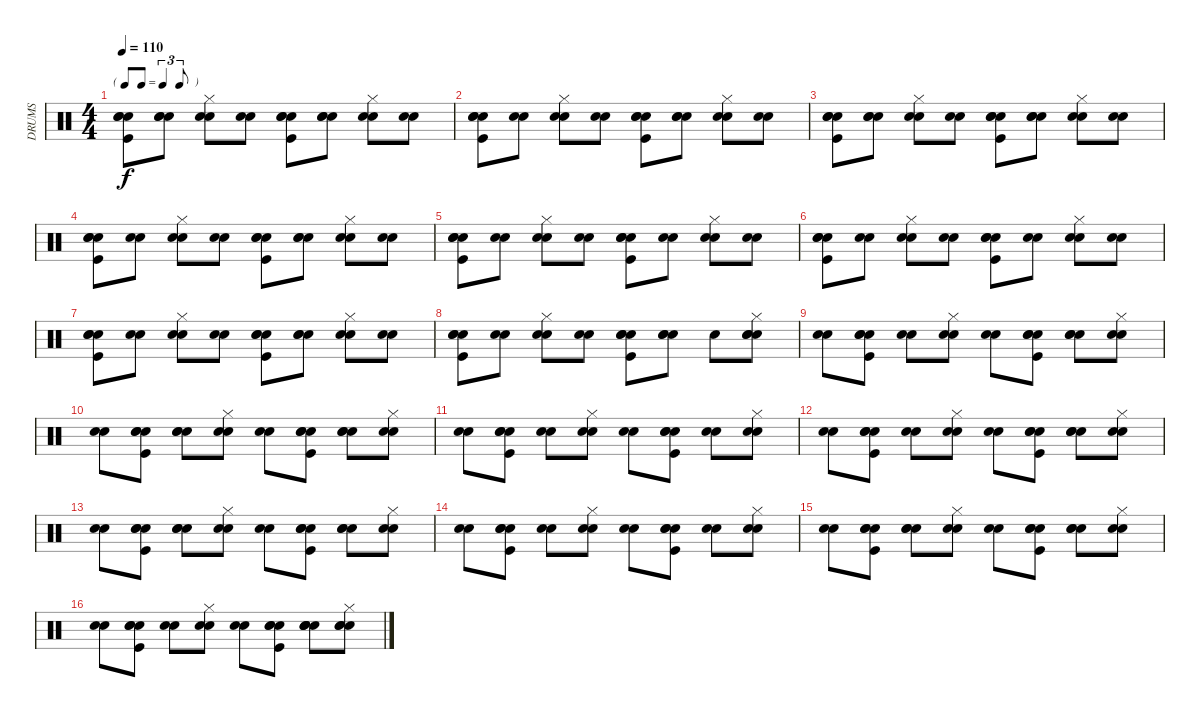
\track ("DRUMS" "DRUMS") {instrument percussion}
\staff {score}
\articulation defaults
\ts (4 4)
\tf triplet8th
\tempo 110
\clef neutral
\ks c
("Snare (hit)" "Kick (hit)" "Snare (hit) 2" "Electric Snare (hit)").8{dy f} ("Snare (hit)" "Snare (hit) 2" "Electric Snare (hit)").8 ("Snare (hit)" "Snare (hit) 2" "Hi-Hat (closed)").8 ("Snare (hit)" "Snare (hit) 2").8 ("Snare (hit)" "Kick (hit)" "Snare (hit) 2" "Electric Snare (hit)").8 ("Snare (hit)" "Snare (hit) 2" "Electric Snare (hit)").8 ("Snare (hit)" "Snare (hit) 2" "Hi-Hat (closed)").8 ("Snare (hit)" "Snare (hit) 2").8 |
("Snare (hit)" "Kick (hit)" "Snare (hit) 2" "Electric Snare (hit)").8 ("Snare (hit)" "Electric Snare (hit)").8 ("Snare (hit)" "Snare (hit) 2" "Hi-Hat (closed)").8 ("Snare (hit)" "Snare (hit) 2").8 ("Snare (hit)" "Kick (hit)" "Snare (hit) 2" "Electric Snare (hit)").8 ("Snare (hit)" "Snare (hit) 2" "Electric Snare (hit)").8 ("Snare (hit)" "Snare (hit) 2" "Hi-Hat (closed)").8 ("Snare (hit)" "Snare (hit) 2").8 |
("Snare (hit)" "Kick (hit)" "Snare (hit) 2" "Electric Snare (hit)").8 ("Snare (hit)" "Snare (hit) 2" "Electric Snare (hit)").8 ("Snare (hit)" "Snare (hit) 2" "Hi-Hat (closed)").8 ("Snare (hit)" "Snare (hit) 2").8 ("Snare (hit)" "Kick (hit)" "Snare (hit) 2" "Electric Snare (hit)").8 ("Snare (hit)" "Snare (hit) 2" "Electric Snare (hit)").8 ("Snare (hit)" "Snare (hit) 2" "Hi-Hat (closed)").8 ("Snare (hit)" "Snare (hit) 2").8 |
("Snare (hit)" "Kick (hit)" "Snare (hit) 2" "Electric Snare (hit)").8 ("Snare (hit)" "Electric Snare (hit)").8 ("Snare (hit)" "Snare (hit) 2" "Hi-Hat (closed)").8 ("Snare (hit)" "Snare (hit) 2").8 ("Snare (hit)" "Kick (hit)" "Snare (hit) 2" "Electric Snare (hit)").8 ("Snare (hit)" "Snare (hit) 2" "Electric Snare (hit)").8 ("Snare (hit)" "Snare (hit) 2" "Hi-Hat (closed)").8 ("Snare (hit)" "Snare (hit) 2").8 |
("Snare (hit)" "Kick (hit)" "Snare (hit) 2" "Electric Snare (hit)").8 ("Snare (hit)" "Electric Snare (hit)").8 ("Snare (hit)" "Snare (hit) 2" "Hi-Hat (closed)").8 ("Snare (hit)" "Snare (hit) 2").8 ("Snare (hit)" "Kick (hit)" "Snare (hit) 2" "Electric Snare (hit)").8 ("Snare (hit)" "Electric Snare (hit)").8 ("Snare (hit)" "Snare (hit) 2" "Hi-Hat (closed)").8 ("Snare (hit)" "Snare (hit) 2").8 |
("Snare (hit)" "Kick (hit)" "Snare (hit) 2" "Electric Snare (hit)").8 ("Snare (hit)" "Electric Snare (hit)").8 ("Snare (hit)" "Snare (hit) 2" "Hi-Hat (closed)").8 ("Snare (hit)" "Snare (hit) 2").8 ("Snare (hit)" "Kick (hit)" "Snare (hit) 2" "Electric Snare (hit)").8 ("Snare (hit)" "Electric Snare (hit)").8 ("Snare (hit)" "Snare (hit) 2" "Hi-Hat (closed)").8 ("Snare (hit)" "Snare (hit) 2").8 |
("Snare (hit)" "Kick (hit)" "Snare (hit) 2" "Electric Snare (hit)").8 ("Snare (hit)" "Electric Snare (hit)").8 ("Snare (hit)" "Snare (hit) 2" "Hi-Hat (closed)").8 ("Snare (hit)" "Snare (hit) 2").8 ("Snare (hit)" "Kick (hit)" "Snare (hit) 2" "Electric Snare (hit)").8 ("Snare (hit)" "Snare (hit) 2" "Electric Snare (hit)").8 ("Snare (hit)" "Snare (hit) 2" "Hi-Hat (closed)").8 ("Snare (hit)" "Snare (hit) 2").8 |
("Snare (hit)" "Kick (hit)" "Snare (hit) 2" "Electric Snare (hit)").8 ("Snare (hit)" "Electric Snare (hit)").8 ("Snare (hit)" "Snare (hit) 2" "Hi-Hat (closed)").8 ("Snare (hit)" "Snare (hit) 2").8 ("Snare (hit)" "Kick (hit)" "Snare (hit) 2" "Electric Snare (hit)").8 ("Snare (hit)" "Electric Snare (hit)" "Hand Clap (hit)").8 "Hand Clap (hit)".8 ("Snare (hit)" "Snare (hit) 2" "Hi-Hat (closed)" "Hand Clap (hit)").8 |
("Snare (hit)" "Snare (hit) 2").8 ("Snare (hit)" "Kick (hit)" "Snare (hit) 2" "Electric Snare (hit)").8 ("Snare (hit)" "Electric Snare (hit)").8 ("Snare (hit)" "Snare (hit) 2" "Hi-Hat (closed)").8 ("Snare (hit)" "Snare (hit) 2").8 ("Snare (hit)" "Kick (hit)" "Snare (hit) 2" "Electric Snare (hit)").8 ("Snare (hit)" "Snare (hit) 2" "Electric Snare (hit)").8 ("Snare (hit)" "Snare (hit) 2" "Hi-Hat (closed)").8 |
("Snare (hit)" "Snare (hit) 2").8 ("Snare (hit)" "Kick (hit)" "Snare (hit) 2" "Electric Snare (hit)").8 ("Snare (hit)" "Snare (hit) 2" "Electric Snare (hit)").8 ("Snare (hit)" "Snare (hit) 2" "Hi-Hat (closed)").8 ("Snare (hit)" "Snare (hit) 2").8 ("Snare (hit)" "Kick (hit)" "Snare (hit) 2" "Electric Snare (hit)").8 ("Snare (hit)" "Snare (hit) 2" "Electric Snare (hit)").8 ("Snare (hit)" "Snare (hit) 2" "Hi-Hat (closed)").8 |
("Snare (hit)" "Snare (hit) 2").8 ("Snare (hit)" "Kick (hit)" "Snare (hit) 2" "Electric Snare (hit)").8 ("Snare (hit)" "Electric Snare (hit)").8 ("Snare (hit)" "Snare (hit) 2" "Hi-Hat (closed)").8 ("Snare (hit)" "Snare (hit) 2").8 ("Snare (hit)" "Kick (hit)" "Snare (hit) 2" "Electric Snare (hit)").8 ("Snare (hit)" "Electric Snare (hit)").8 ("Snare (hit)" "Snare (hit) 2" "Hi-Hat (closed)").8 |
("Snare (hit)" "Snare (hit) 2").8 ("Snare (hit)" "Kick (hit)" "Snare (hit) 2" "Electric Snare (hit)").8 ("Snare (hit)" "Electric Snare (hit)").8 ("Snare (hit)" "Snare (hit) 2" "Hi-Hat (closed)").8 ("Snare (hit)" "Snare (hit) 2").8 ("Snare (hit)" "Kick (hit)" "Snare (hit) 2" "Electric Snare (hit)").8 ("Snare (hit)" "Snare (hit) 2" "Electric Snare (hit)").8 ("Snare (hit)" "Snare (hit) 2" "Hi-Hat (closed)").8 |
("Snare (hit)" "Snare (hit) 2").8 ("Snare (hit)" "Kick (hit)" "Snare (hit) 2" "Electric Snare (hit)").8 ("Snare (hit)" "Snare (hit) 2" "Electric Snare (hit)").8 ("Snare (hit)" "Snare (hit) 2" "Hi-Hat (closed)").8 ("Snare (hit)" "Snare (hit) 2").8 ("Snare (hit)" "Kick (hit)" "Snare (hit) 2" "Electric Snare (hit)").8 ("Snare (hit)" "Snare (hit) 2" "Electric Snare (hit)").8 ("Snare (hit)" "Snare (hit) 2" "Hi-Hat (closed)").8 |
("Snare (hit)" "Snare (hit) 2").8 ("Snare (hit)" "Kick (hit)" "Snare (hit) 2" "Electric Snare (hit)").8 ("Snare (hit)" "Electric Snare (hit)").8 ("Snare (hit)" "Snare (hit) 2" "Hi-Hat (closed)").8 ("Snare (hit)" "Snare (hit) 2").8 ("Snare (hit)" "Kick (hit)" "Snare (hit) 2" "Electric Snare (hit)").8 ("Snare (hit)" "Electric Snare (hit)").8 ("Snare (hit)" "Snare (hit) 2" "Hi-Hat (closed)").8 |
("Snare (hit)" "Snare (hit) 2").8 ("Snare (hit)" "Kick (hit)" "Snare (hit) 2" "Electric Snare (hit)").8 ("Snare (hit)" "Snare (hit) 2" "Electric Snare (hit)").8 ("Snare (hit)" "Snare (hit) 2" "Hi-Hat (closed)").8 ("Snare (hit)" "Snare (hit) 2").8 ("Snare (hit)" "Kick (hit)" "Snare (hit) 2" "Electric Snare (hit)").8 ("Snare (hit)" "Snare (hit) 2" "Electric Snare (hit)").8 ("Snare (hit)" "Snare (hit) 2" "Hi-Hat (closed)").8 |
("Snare (hit)" "Snare (hit) 2").8 ("Snare (hit)" "Kick (hit)" "Snare (hit) 2" "Electric Snare (hit)").8 ("Snare (hit)" "Electric Snare (hit)").8 ("Snare (hit)" "Snare (hit) 2" "Hi-Hat (closed)").8 ("Snare (hit)" "Snare (hit) 2").8 ("Snare (hit)" "Kick (hit)" "Snare (hit) 2" "Electric Snare (hit)").8 ("Snare (hit)" "Snare (hit) 2" "Electric Snare (hit)" "Hand Clap (hit)").8 ("Snare (hit)" "Snare (hit) 2" "Hi-Hat (closed)" "Hand Clap (hit)").8
